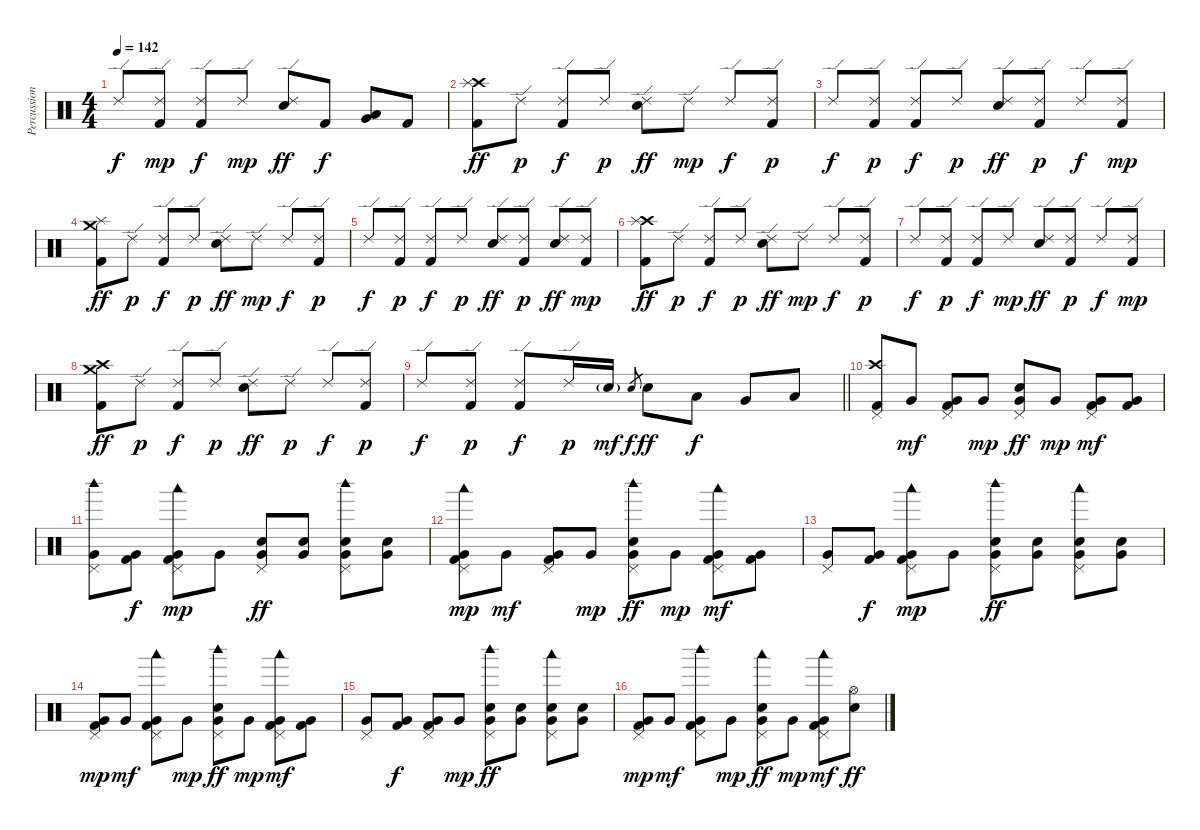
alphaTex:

\track ("Percussion" "Percussion") {instrument percussion}
\staff {score}
\articulation defaults
\ts (4 4)
\tempo 142
\clef neutral
\ks c "Ride (edge) 2".8{dy f}
("Ride (edge) 2" "Kick (hit) 2").8{dy mp} ("Ride (edge) 2" "Kick (hit) 2").8{dy f} "Ride (edge) 2".8{dy mp} ("Ride (edge) 2" "Snare (hit) 2").8{dy ff} "Kick (hit) 2".8{dy f} ("Low Tom (hit)" "Very Low Tom (hit)").8 "Kick (hit) 2".8 |
("Crash high (hit)" "Splash (hit)" "Kick (hit) 2").8{dy ff} "Ride (edge) 2".8{dy p} ("Ride (edge) 2" "Kick (hit) 2").8{dy f} "Ride (edge) 2".8{dy p} ("Ride (edge) 2" "Snare (hit) 2").8{dy ff} "Ride (edge) 2".8{dy mp} "Ride (edge) 2".8{dy f} ("Ride (edge) 2" "Kick (hit) 2").8{dy p} |
"Ride (edge) 2".8{dy f} ("Ride (edge) 2" "Kick (hit) 2").8{dy p} ("Ride (edge) 2" "Kick (hit) 2").8{dy f} "Ride (edge) 2".8{dy p} ("Ride (edge) 2" "Snare (hit) 2").8{dy ff} ("Ride (edge) 2" "Kick (hit) 2").8{dy p} "Ride (edge) 2".8{dy f} ("Ride (edge) 2" "Kick (hit) 2").8{dy mp} |
("Crash medium (hit)" "Splash (hit)" "Kick (hit) 2").8{dy ff} "Ride (edge) 2".8{dy p} ("Ride (edge) 2" "Kick (hit) 2").8{dy f} "Ride (edge) 2".8{dy p} ("Ride (edge) 2" "Snare (hit) 2").8{dy ff} "Ride (edge) 2".8{dy mp} "Ride (edge) 2".8{dy f} ("Ride (edge) 2" "Kick (hit) 2").8{dy p} |
"Ride (edge) 2".8{dy f} ("Ride (edge) 2" "Kick (hit) 2").8{dy p} ("Ride (edge) 2" "Kick (hit) 2").8{dy f} "Ride (edge) 2".8{dy p} ("Ride (edge) 2" "Snare (hit) 2").8{dy ff} ("Ride (edge) 2" "Kick (hit) 2").8{dy p} ("Ride (edge) 2" "Snare (hit) 2").8{dy ff} ("Ride (edge) 2" "Kick (hit) 2").8{dy mp} |
("Crash high (hit)" "Splash (hit)" "Kick (hit) 2").8{dy ff} "Ride (edge) 2".8{dy p} ("Ride (edge) 2" "Kick (hit) 2").8{dy f} "Ride (edge) 2".8{dy p} ("Ride (edge) 2" "Snare (hit) 2").8{dy ff} "Ride (edge) 2".8{dy mp} "Ride (edge) 2".8{dy f} ("Ride (edge) 2" "Kick (hit) 2").8{dy p} |
"Ride (edge) 2".8{dy f} ("Ride (edge) 2" "Kick (hit) 2").8{dy p} ("Ride (edge) 2" "Kick (hit) 2").8{dy f} "Ride (edge) 2".8{dy mp} ("Ride (edge) 2" "Snare (hit) 2").8{dy ff} ("Ride (edge) 2" "Kick (hit) 2").8{dy p} "Ride (edge) 2".8{dy f} ("Ride (edge) 2" "Kick (hit) 2").8{dy mp} |
("Crash high (hit)" "Crash medium (hit)" "Kick (hit) 2").8{dy ff} "Ride (edge) 2".8{dy p} ("Ride (edge) 2" "Kick (hit) 2").8{dy f} "Ride (edge) 2".8{dy p} ("Ride (edge) 2" "Snare (hit) 2").8{dy ff} "Ride (edge) 2".8{dy p} "Ride (edge) 2".8{dy f} ("Ride (edge) 2" "Kick (hit) 2").8{dy p} |
\barLineRight lightlight "Ride (edge) 2".8{dy f}
("Ride (edge) 2" "Kick (hit) 2").8{dy p} ("Ride (edge) 2" "Kick (hit) 2").8{dy f} "Ride (edge) 2".16{dy p} "Snare (hit) 2"{g}.16{dy mf} "Snare (hit) 2".8{gr dy f} "Snare (hit) 2".8{dy ff} "Low Tom (hit)".8{dy f} "Very Low Tom (hit)".8 "Low Floor Tom (hit)".8 |
("Crash high (hit)" "Pedal Hi-Hat (hit)" "Kick (hit) 2").8 "Very Low Tom (hit)".8{dy mf} ("Very Low Tom (hit)" "Pedal Hi-Hat (hit)" "Kick (hit) 2").8 "Very Low Tom (hit)".8{dy mp} ("Very Low Tom (hit)" "Snare (hit) 2" "Pedal Hi-Hat (hit)").8{dy ff} "Very Low Tom (hit)".8{dy mp} ("Very Low Tom (hit)" "Pedal Hi-Hat (hit)" "Kick (hit) 2").8{dy mf} ("Very Low Tom (hit)" "Kick (hit) 2").8 |
("Woodblock high (hit)" "Very Low Tom (hit)" "Pedal Hi-Hat (hit)").8 ("Very Low Tom (hit)" "Kick (hit) 2").8{dy f} ("Woodblock low (hit)" "Very Low Tom (hit)" "Pedal Hi-Hat (hit)" "Kick (hit) 2").8{dy mp} "Very Low Tom (hit)".8 ("Very Low Tom (hit)" "Snare (hit) 2" "Pedal Hi-Hat (hit)").8{dy ff} ("Very Low Tom (hit)" "Snare (hit) 2").8 ("Woodblock high (hit)" "Very Low Tom (hit)" "Snare (hit) 2" "Pedal Hi-Hat (hit)").8 ("Very Low Tom (hit)" "Snare (hit) 2").8 |
("Woodblock low (hit)" "Very Low Tom (hit)" "Pedal Hi-Hat (hit)" "Kick (hit) 2").8{dy mp} "Very Low Tom (hit)".8{dy mf} ("Very Low Tom (hit)" "Pedal Hi-Hat (hit)" "Kick (hit) 2").8 "Very Low Tom (hit)".8{dy mp} ("Woodblock high (hit)" "Very Low Tom (hit)" "Snare (hit) 2" "Pedal Hi-Hat (hit)").8{dy ff} "Very Low Tom (hit)".8{dy mp} ("Woodblock low (hit)" "Very Low Tom (hit)" "Pedal Hi-Hat (hit)" "Kick (hit) 2").8{dy mf} ("Very Low Tom (hit)" "Kick (hit) 2").8 |
("Very Low Tom (hit)" "Pedal Hi-Hat (hit)").8 ("Very Low Tom (hit)" "Kick (hit) 2").8{dy f} ("Woodblock low (hit)" "Very Low Tom (hit)" "Pedal Hi-Hat (hit)" "Kick (hit) 2").8{dy mp} "Very Low Tom (hit)".8 ("Woodblock high (hit)" "Very Low Tom (hit)" "Snare (hit) 2" "Pedal Hi-Hat (hit)").8{dy ff} ("Very Low Tom (hit)" "Snare (hit) 2").8 ("Woodblock low (hit)" "Very Low Tom (hit)" "Snare (hit) 2" "Pedal Hi-Hat (hit)").8 ("Very Low Tom (hit)" "Snare (hit) 2").8 |
("Very Low Tom (hit)" "Pedal Hi-Hat (hit)" "Kick (hit) 2").8{dy mp} "Very Low Tom (hit)".8{dy mf} ("Woodblock low (hit)" "Very Low Tom (hit)" "Pedal Hi-Hat (hit)" "Kick (hit) 2").8 "Very Low Tom (hit)".8{dy mp} ("Woodblock high (hit)" "Very Low Tom (hit)" "Snare (hit) 2" "Pedal Hi-Hat (hit)").8{dy ff} "Very Low Tom (hit)".8{dy mp} ("Woodblock low (hit)" "Very Low Tom (hit)" "Pedal Hi-Hat (hit)" "Kick (hit) 2").8{dy mf} ("Very Low Tom (hit)" "Kick (hit) 2").8 |
("Very Low Tom (hit)" "Pedal Hi-Hat (hit)").8 ("Very Low Tom (hit)" "Kick (hit) 2").8{dy f} ("Very Low Tom (hit)" "Pedal Hi-Hat (hit)" "Kick (hit) 2").8 "Very Low Tom (hit)".8{dy mp} ("Woodblock high (hit)" "Very Low Tom (hit)" "Snare (hit) 2" "Pedal Hi-Hat (hit)").8{dy ff} ("Very Low Tom (hit)" "Snare (hit) 2").8 ("Woodblock low (hit)" "Very Low Tom (hit)" "Snare (hit) 2" "Pedal Hi-Hat (hit)").8 ("Very Low Tom (hit)" "Snare (hit) 2").8 |
("Very Low Tom (hit)" "Pedal Hi-Hat (hit)" "Kick (hit) 2").8{dy mp} "Very Low Tom (hit)".8{dy mf} ("Woodblock high (hit)" "Very Low Tom (hit)" "Pedal Hi-Hat (hit)" "Kick (hit) 2").8 "Very Low Tom (hit)".8{dy mp} ("Woodblock low (hit)" "Very Low Tom (hit)" "Snare (hit) 2" "Pedal Hi-Hat (hit)").8{dy ff} "Very Low Tom (hit)".8{dy mp} ("Woodblock low (hit)" "Very Low Tom (hit)" "Pedal Hi-Hat (hit)" "Kick (hit) 2").8{dy mf} ("Hi-Hat (open)" "Snare (hit) 2").8{dy ff}
